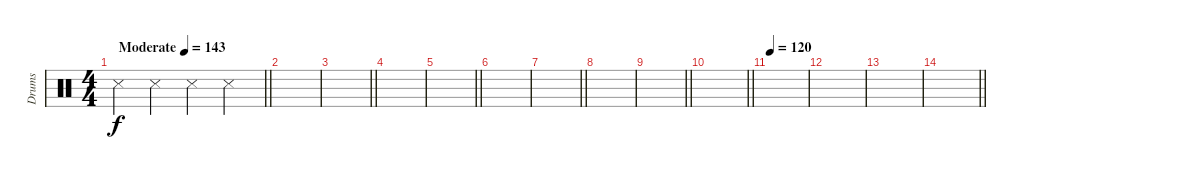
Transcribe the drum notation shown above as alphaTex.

\track ("Drums" "Drums") {instrument percussion}
\staff
\articulation defaults
\ts (4 4)
\tempo (143 "Moderate")
\tempo 124
\tempo (143 "Moderate")
\clef neutral
\barLineRight lightlight
\ks c "Metronome (hit)".4{dy f} "Metronome (hit)".4 "Metronome (hit)".4 "Metronome (hit)".4
|
|
\barLineRight lightlight
|
|
\barLineRight lightlight
|
|
\barLineRight lightlight
|
|
\barLineRight lightlight
|
\barLineRight lightlight
|
\tempo 120
|
|
|
\barLineRight lightlight
